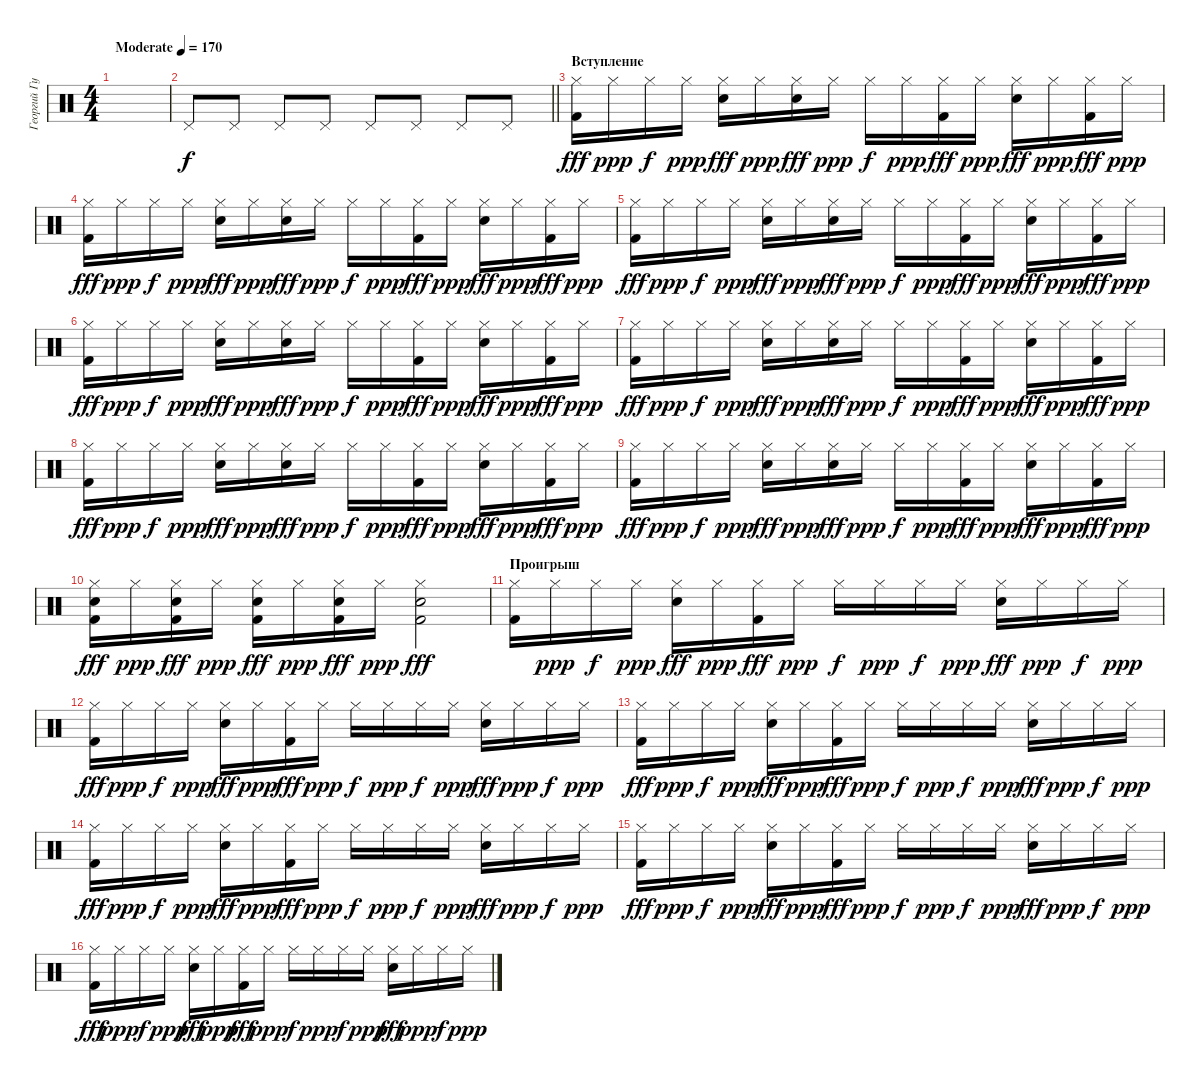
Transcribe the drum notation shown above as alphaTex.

\track ("Георгий Гурьянов" "Георгий Гу") {instrument percussion}
\staff {score}
\articulation defaults
\ts (4 4)
\tempo (170 "Moderate")
\clef neutral
\ks c
|
\barLineRight lightlight "Pedal Hi-Hat (hit)".8 "Pedal Hi-Hat (hit)".8 "Pedal Hi-Hat (hit)".8 "Pedal Hi-Hat (hit)".8 "Pedal Hi-Hat (hit)".8 "Pedal Hi-Hat (hit)".8 "Pedal Hi-Hat (hit)".8 "Pedal Hi-Hat (hit)".8
|
\section ("" "Вступление")
("Hi-Hat (closed)" "Kick (hit) 2").16{dy fff} "Hi-Hat (closed)".16{dy ppp} "Hi-Hat (closed)".16{dy f} "Hi-Hat (closed)".16{dy ppp} ("Hi-Hat (closed)" "Electric Snare (hit)").16{dy fff} "Hi-Hat (closed)".16{dy ppp} ("Hi-Hat (closed)" "Electric Snare (hit)").16{dy fff} "Hi-Hat (closed)".16{dy ppp} "Hi-Hat (closed)".16{dy f} "Hi-Hat (closed)".16{dy ppp} ("Hi-Hat (closed)" "Kick (hit) 2").16{dy fff} "Hi-Hat (closed)".16{dy ppp} ("Hi-Hat (closed)" "Electric Snare (hit)").16{dy fff} "Hi-Hat (closed)".16{dy ppp} ("Hi-Hat (closed)" "Kick (hit) 2").16{dy fff} "Hi-Hat (closed)".16{dy ppp} |
("Hi-Hat (closed)" "Kick (hit) 2").16{dy fff} "Hi-Hat (closed)".16{dy ppp} "Hi-Hat (closed)".16{dy f} "Hi-Hat (closed)".16{dy ppp} ("Hi-Hat (closed)" "Electric Snare (hit)").16{dy fff} "Hi-Hat (closed)".16{dy ppp} ("Hi-Hat (closed)" "Electric Snare (hit)").16{dy fff} "Hi-Hat (closed)".16{dy ppp} "Hi-Hat (closed)".16{dy f} "Hi-Hat (closed)".16{dy ppp} ("Hi-Hat (closed)" "Kick (hit) 2").16{dy fff} "Hi-Hat (closed)".16{dy ppp} ("Hi-Hat (closed)" "Electric Snare (hit)").16{dy fff} "Hi-Hat (closed)".16{dy ppp} ("Hi-Hat (closed)" "Kick (hit) 2").16{dy fff} "Hi-Hat (closed)".16{dy ppp} |
("Hi-Hat (closed)" "Kick (hit) 2").16{dy fff} "Hi-Hat (closed)".16{dy ppp} "Hi-Hat (closed)".16{dy f} "Hi-Hat (closed)".16{dy ppp} ("Hi-Hat (closed)" "Electric Snare (hit)").16{dy fff} "Hi-Hat (closed)".16{dy ppp} ("Hi-Hat (closed)" "Electric Snare (hit)").16{dy fff} "Hi-Hat (closed)".16{dy ppp} "Hi-Hat (closed)".16{dy f} "Hi-Hat (closed)".16{dy ppp} ("Hi-Hat (closed)" "Kick (hit) 2").16{dy fff} "Hi-Hat (closed)".16{dy ppp} ("Hi-Hat (closed)" "Electric Snare (hit)").16{dy fff} "Hi-Hat (closed)".16{dy ppp} ("Hi-Hat (closed)" "Kick (hit) 2").16{dy fff} "Hi-Hat (closed)".16{dy ppp} |
("Hi-Hat (closed)" "Kick (hit) 2").16{dy fff} "Hi-Hat (closed)".16{dy ppp} "Hi-Hat (closed)".16{dy f} "Hi-Hat (closed)".16{dy ppp} ("Hi-Hat (closed)" "Electric Snare (hit)").16{dy fff} "Hi-Hat (closed)".16{dy ppp} ("Hi-Hat (closed)" "Electric Snare (hit)").16{dy fff} "Hi-Hat (closed)".16{dy ppp} "Hi-Hat (closed)".16{dy f} "Hi-Hat (closed)".16{dy ppp} ("Hi-Hat (closed)" "Kick (hit) 2").16{dy fff} "Hi-Hat (closed)".16{dy ppp} ("Hi-Hat (closed)" "Electric Snare (hit)").16{dy fff} "Hi-Hat (closed)".16{dy ppp} ("Hi-Hat (closed)" "Kick (hit) 2").16{dy fff} "Hi-Hat (closed)".16{dy ppp} |
("Hi-Hat (closed)" "Kick (hit) 2").16{dy fff} "Hi-Hat (closed)".16{dy ppp} "Hi-Hat (closed)".16{dy f} "Hi-Hat (closed)".16{dy ppp} ("Hi-Hat (closed)" "Electric Snare (hit)").16{dy fff} "Hi-Hat (closed)".16{dy ppp} ("Hi-Hat (closed)" "Electric Snare (hit)").16{dy fff} "Hi-Hat (closed)".16{dy ppp} "Hi-Hat (closed)".16{dy f} "Hi-Hat (closed)".16{dy ppp} ("Hi-Hat (closed)" "Kick (hit) 2").16{dy fff} "Hi-Hat (closed)".16{dy ppp} ("Hi-Hat (closed)" "Electric Snare (hit)").16{dy fff} "Hi-Hat (closed)".16{dy ppp} ("Hi-Hat (closed)" "Kick (hit) 2").16{dy fff} "Hi-Hat (closed)".16{dy ppp} |
("Hi-Hat (closed)" "Kick (hit) 2").16{dy fff} "Hi-Hat (closed)".16{dy ppp} "Hi-Hat (closed)".16{dy f} "Hi-Hat (closed)".16{dy ppp} ("Hi-Hat (closed)" "Electric Snare (hit)").16{dy fff} "Hi-Hat (closed)".16{dy ppp} ("Hi-Hat (closed)" "Electric Snare (hit)").16{dy fff} "Hi-Hat (closed)".16{dy ppp} "Hi-Hat (closed)".16{dy f} "Hi-Hat (closed)".16{dy ppp} ("Hi-Hat (closed)" "Kick (hit) 2").16{dy fff} "Hi-Hat (closed)".16{dy ppp} ("Hi-Hat (closed)" "Electric Snare (hit)").16{dy fff} "Hi-Hat (closed)".16{dy ppp} ("Hi-Hat (closed)" "Kick (hit) 2").16{dy fff} "Hi-Hat (closed)".16{dy ppp} |
("Hi-Hat (closed)" "Kick (hit) 2").16{dy fff} "Hi-Hat (closed)".16{dy ppp} "Hi-Hat (closed)".16{dy f} "Hi-Hat (closed)".16{dy ppp} ("Hi-Hat (closed)" "Electric Snare (hit)").16{dy fff} "Hi-Hat (closed)".16{dy ppp} ("Hi-Hat (closed)" "Electric Snare (hit)").16{dy fff} "Hi-Hat (closed)".16{dy ppp} "Hi-Hat (closed)".16{dy f} "Hi-Hat (closed)".16{dy ppp} ("Hi-Hat (closed)" "Kick (hit) 2").16{dy fff} "Hi-Hat (closed)".16{dy ppp} ("Hi-Hat (closed)" "Electric Snare (hit)").16{dy fff} "Hi-Hat (closed)".16{dy ppp} ("Hi-Hat (closed)" "Kick (hit) 2").16{dy fff} "Hi-Hat (closed)".16{dy ppp} |
("Hi-Hat (closed)" "Electric Snare (hit)" "Kick (hit) 2").16{dy fff} "Hi-Hat (closed)".16{dy ppp} ("Hi-Hat (closed)" "Electric Snare (hit)" "Kick (hit) 2").16{dy fff} "Hi-Hat (closed)".16{dy ppp} ("Hi-Hat (closed)" "Kick (hit) 2" "Electric Snare (hit)").16{dy fff} "Hi-Hat (closed)".16{dy ppp} ("Hi-Hat (closed)" "Kick (hit) 2" "Electric Snare (hit)").16{dy fff} "Hi-Hat (closed)".16{dy ppp} ("Hi-Hat (closed)" "Electric Snare (hit)" "Kick (hit) 2").2{dy fff} |
\section ("" "Проигрыш")
("Hi-Hat (closed)" "Kick (hit) 2").16 "Hi-Hat (closed)".16{dy ppp} "Hi-Hat (closed)".16{dy f} "Hi-Hat (closed)".16{dy ppp} ("Hi-Hat (closed)" "Electric Snare (hit)").16{dy fff} "Hi-Hat (closed)".16{dy ppp} ("Hi-Hat (closed)" "Kick (hit) 2").16{dy fff} "Hi-Hat (closed)".16{dy ppp} "Hi-Hat (closed)".16{dy f} "Hi-Hat (closed)".16{dy ppp} "Hi-Hat (closed)".16{dy f} "Hi-Hat (closed)".16{dy ppp} ("Hi-Hat (closed)" "Electric Snare (hit)").16{dy fff} "Hi-Hat (closed)".16{dy ppp} "Hi-Hat (closed)".16{dy f} "Hi-Hat (closed)".16{dy ppp} |
("Hi-Hat (closed)" "Kick (hit) 2").16{dy fff} "Hi-Hat (closed)".16{dy ppp} "Hi-Hat (closed)".16{dy f} "Hi-Hat (closed)".16{dy ppp} ("Hi-Hat (closed)" "Electric Snare (hit)").16{dy fff} "Hi-Hat (closed)".16{dy ppp} ("Hi-Hat (closed)" "Kick (hit) 2").16{dy fff} "Hi-Hat (closed)".16{dy ppp} "Hi-Hat (closed)".16{dy f} "Hi-Hat (closed)".16{dy ppp} "Hi-Hat (closed)".16{dy f} "Hi-Hat (closed)".16{dy ppp} ("Hi-Hat (closed)" "Electric Snare (hit)").16{dy fff} "Hi-Hat (closed)".16{dy ppp} "Hi-Hat (closed)".16{dy f} "Hi-Hat (closed)".16{dy ppp} |
("Hi-Hat (closed)" "Kick (hit) 2").16{dy fff} "Hi-Hat (closed)".16{dy ppp} "Hi-Hat (closed)".16{dy f} "Hi-Hat (closed)".16{dy ppp} ("Hi-Hat (closed)" "Electric Snare (hit)").16{dy fff} "Hi-Hat (closed)".16{dy ppp} ("Hi-Hat (closed)" "Kick (hit) 2").16{dy fff} "Hi-Hat (closed)".16{dy ppp} "Hi-Hat (closed)".16{dy f} "Hi-Hat (closed)".16{dy ppp} "Hi-Hat (closed)".16{dy f} "Hi-Hat (closed)".16{dy ppp} ("Hi-Hat (closed)" "Electric Snare (hit)").16{dy fff} "Hi-Hat (closed)".16{dy ppp} "Hi-Hat (closed)".16{dy f} "Hi-Hat (closed)".16{dy ppp} |
("Hi-Hat (closed)" "Kick (hit) 2").16{dy fff} "Hi-Hat (closed)".16{dy ppp} "Hi-Hat (closed)".16{dy f} "Hi-Hat (closed)".16{dy ppp} ("Hi-Hat (closed)" "Electric Snare (hit)").16{dy fff} "Hi-Hat (closed)".16{dy ppp} ("Hi-Hat (closed)" "Kick (hit) 2").16{dy fff} "Hi-Hat (closed)".16{dy ppp} "Hi-Hat (closed)".16{dy f} "Hi-Hat (closed)".16{dy ppp} "Hi-Hat (closed)".16{dy f} "Hi-Hat (closed)".16{dy ppp} ("Hi-Hat (closed)" "Electric Snare (hit)").16{dy fff} "Hi-Hat (closed)".16{dy ppp} "Hi-Hat (closed)".16{dy f} "Hi-Hat (closed)".16{dy ppp} |
("Hi-Hat (closed)" "Kick (hit) 2").16{dy fff} "Hi-Hat (closed)".16{dy ppp} "Hi-Hat (closed)".16{dy f} "Hi-Hat (closed)".16{dy ppp} ("Hi-Hat (closed)" "Electric Snare (hit)").16{dy fff} "Hi-Hat (closed)".16{dy ppp} ("Hi-Hat (closed)" "Kick (hit) 2").16{dy fff} "Hi-Hat (closed)".16{dy ppp} "Hi-Hat (closed)".16{dy f} "Hi-Hat (closed)".16{dy ppp} "Hi-Hat (closed)".16{dy f} "Hi-Hat (closed)".16{dy ppp} ("Hi-Hat (closed)" "Electric Snare (hit)").16{dy fff} "Hi-Hat (closed)".16{dy ppp} "Hi-Hat (closed)".16{dy f} "Hi-Hat (closed)".16{dy ppp} |
("Hi-Hat (closed)" "Kick (hit) 2").16{dy fff} "Hi-Hat (closed)".16{dy ppp} "Hi-Hat (closed)".16{dy f} "Hi-Hat (closed)".16{dy ppp} ("Hi-Hat (closed)" "Electric Snare (hit)").16{dy fff} "Hi-Hat (closed)".16{dy ppp} ("Hi-Hat (closed)" "Kick (hit) 2").16{dy fff} "Hi-Hat (closed)".16{dy ppp} "Hi-Hat (closed)".16{dy f} "Hi-Hat (closed)".16{dy ppp} "Hi-Hat (closed)".16{dy f} "Hi-Hat (closed)".16{dy ppp} ("Hi-Hat (closed)" "Electric Snare (hit)").16{dy fff} "Hi-Hat (closed)".16{dy ppp} "Hi-Hat (closed)".16{dy f} "Hi-Hat (closed)".16{dy ppp}
